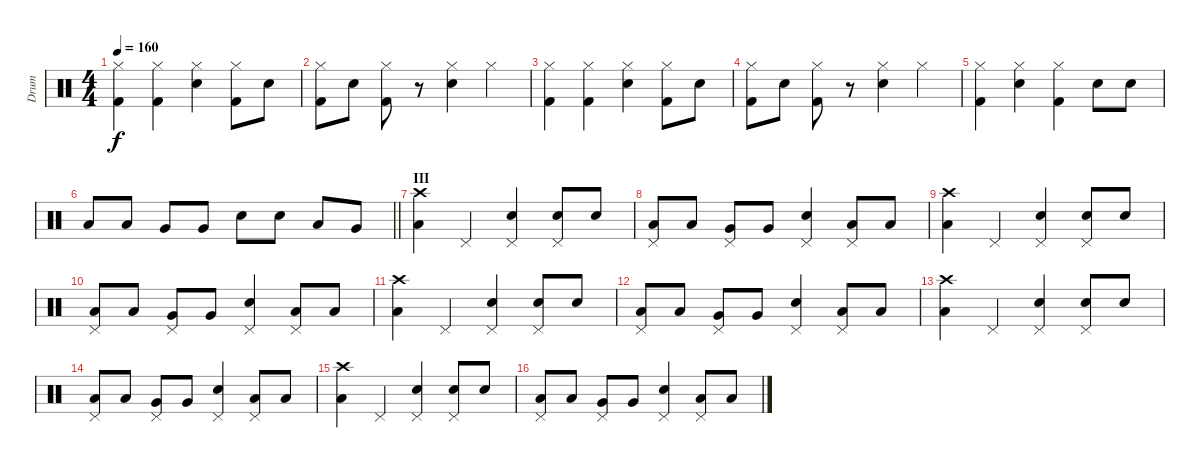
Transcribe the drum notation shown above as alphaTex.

\track ("Drum" "Drum") {instrument percussion}
\staff {score}
\articulation defaults
\ts (4 4)
\tempo 160
\clef neutral
\ks c
("Hi-Hat (closed)" "Kick (hit) 2").4{dy f} ("Hi-Hat (closed)" "Kick (hit) 2").4 ("Hi-Hat (closed)" "Electric Snare (hit)").4 ("Hi-Hat (closed)" "Kick (hit) 2").8 "Electric Snare (hit)".8 |
("Hi-Hat (closed)" "Kick (hit) 2").8 "Electric Snare (hit)".8 ("Hi-Hat (closed)" "Kick (hit) 2").8 r.8 ("Hi-Hat (closed)" "Electric Snare (hit)").4 "Hi-Hat (closed)".4 |
("Hi-Hat (closed)" "Kick (hit) 2").4 ("Hi-Hat (closed)" "Kick (hit) 2").4 ("Hi-Hat (closed)" "Electric Snare (hit)").4 ("Hi-Hat (closed)" "Kick (hit) 2").8 "Electric Snare (hit)".8 |
("Hi-Hat (closed)" "Kick (hit) 2").8 "Electric Snare (hit)".8 ("Hi-Hat (closed)" "Kick (hit) 2").8 r.8 ("Hi-Hat (closed)" "Electric Snare (hit)").4 "Hi-Hat (closed)".4 |
("Hi-Hat (closed)" "Kick (hit) 2").4 ("Hi-Hat (closed)" "Electric Snare (hit)").4 ("Hi-Hat (closed)" "Kick (hit) 2").4 "Electric Snare (hit)".8 "Electric Snare (hit)".8 |
\barLineRight lightlight "Low Floor Tom (hit)".8 "Low Floor Tom (hit)".8 "Very Low Tom (hit)".8 "Very Low Tom (hit)".8 "Electric Snare (hit)".8 "Electric Snare (hit)".8 "Low Floor Tom (hit)".8 "Very Low Tom (hit)".8
|
\section ("" "III")
("Crash high (hit)" "Low Floor Tom (hit)").4 "Pedal Hi-Hat (hit)".4 ("Electric Snare (hit)" "Pedal Hi-Hat (hit)").4 ("Electric Snare (hit)" "Pedal Hi-Hat (hit)").8 "Electric Snare (hit)".8 |
("Low Floor Tom (hit)" "Pedal Hi-Hat (hit)").8 "Low Floor Tom (hit)".8 ("Very Low Tom (hit)" "Pedal Hi-Hat (hit)").8 "Very Low Tom (hit)".8 ("Electric Snare (hit)" "Pedal Hi-Hat (hit)").4 ("Low Floor Tom (hit)" "Pedal Hi-Hat (hit)").8 "Low Floor Tom (hit)".8 |
("Crash high (hit)" "Low Floor Tom (hit)").4 "Pedal Hi-Hat (hit)".4 ("Electric Snare (hit)" "Pedal Hi-Hat (hit)").4 ("Electric Snare (hit)" "Pedal Hi-Hat (hit)").8 "Electric Snare (hit)".8 |
("Low Floor Tom (hit)" "Pedal Hi-Hat (hit)").8 "Low Floor Tom (hit)".8 ("Very Low Tom (hit)" "Pedal Hi-Hat (hit)").8 "Very Low Tom (hit)".8 ("Electric Snare (hit)" "Pedal Hi-Hat (hit)").4 ("Low Floor Tom (hit)" "Pedal Hi-Hat (hit)").8 "Low Floor Tom (hit)".8 |
("Crash high (hit)" "Low Floor Tom (hit)").4 "Pedal Hi-Hat (hit)".4 ("Electric Snare (hit)" "Pedal Hi-Hat (hit)").4 ("Electric Snare (hit)" "Pedal Hi-Hat (hit)").8 "Electric Snare (hit)".8 |
("Low Floor Tom (hit)" "Pedal Hi-Hat (hit)").8 "Low Floor Tom (hit)".8 ("Very Low Tom (hit)" "Pedal Hi-Hat (hit)").8 "Very Low Tom (hit)".8 ("Electric Snare (hit)" "Pedal Hi-Hat (hit)").4 ("Low Floor Tom (hit)" "Pedal Hi-Hat (hit)").8 "Low Floor Tom (hit)".8 |
("Crash high (hit)" "Low Floor Tom (hit)").4 "Pedal Hi-Hat (hit)".4 ("Electric Snare (hit)" "Pedal Hi-Hat (hit)").4 ("Electric Snare (hit)" "Pedal Hi-Hat (hit)").8 "Electric Snare (hit)".8 |
("Low Floor Tom (hit)" "Pedal Hi-Hat (hit)").8 "Low Floor Tom (hit)".8 ("Very Low Tom (hit)" "Pedal Hi-Hat (hit)").8 "Very Low Tom (hit)".8 ("Electric Snare (hit)" "Pedal Hi-Hat (hit)").4 ("Low Floor Tom (hit)" "Pedal Hi-Hat (hit)").8 "Low Floor Tom (hit)".8 |
("Crash high (hit)" "Low Floor Tom (hit)").4 "Pedal Hi-Hat (hit)".4 ("Electric Snare (hit)" "Pedal Hi-Hat (hit)").4 ("Electric Snare (hit)" "Pedal Hi-Hat (hit)").8 "Electric Snare (hit)".8 |
("Low Floor Tom (hit)" "Pedal Hi-Hat (hit)").8 "Low Floor Tom (hit)".8 ("Very Low Tom (hit)" "Pedal Hi-Hat (hit)").8 "Very Low Tom (hit)".8 ("Electric Snare (hit)" "Pedal Hi-Hat (hit)").4 ("Low Floor Tom (hit)" "Pedal Hi-Hat (hit)").8 "Low Floor Tom (hit)".8
